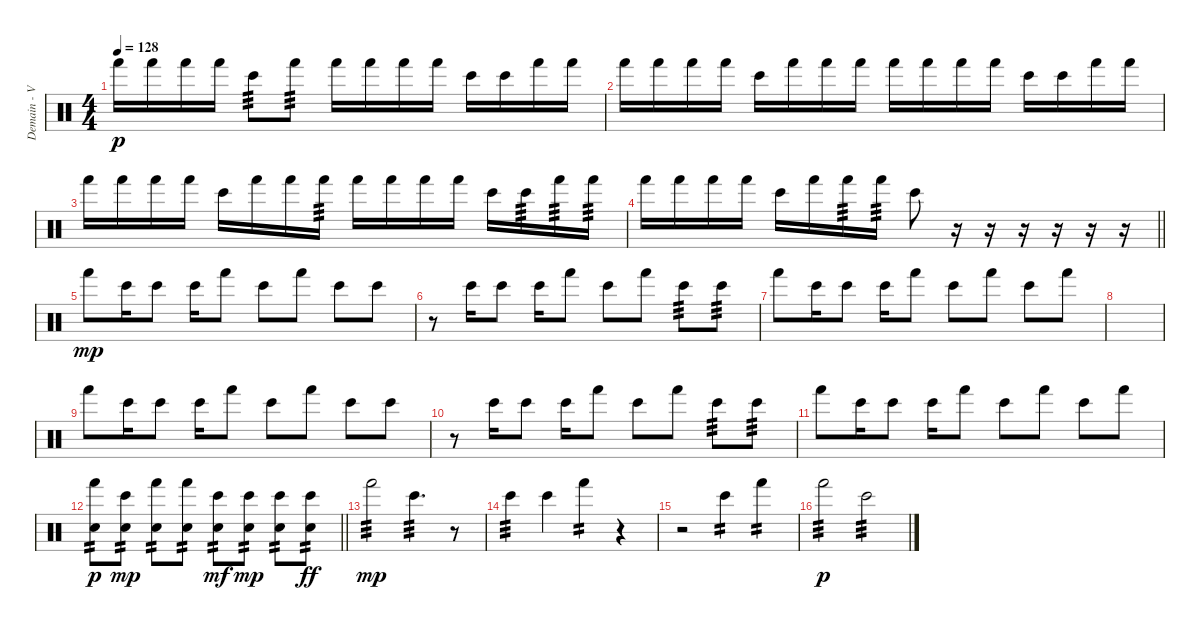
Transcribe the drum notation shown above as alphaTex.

\track ("Demain - Various Perc." "Demain - V") {instrument percussion}
\staff {score}
\articulation defaults
\ts (4 4)
\tempo 128
\clef neutral
\ks c "Hand (hit)".16{dy p} "Hand (hit)".16 "Hand (hit)".16 "Hand (hit)".16 "Bongo High (hit)".8{tp 3} "Hand (hit)".8{tp 3} "Hand (hit)".16 "Hand (hit)".16 "Hand (hit)".16 "Hand (hit)".16 "Bongo High (hit)".16 "Bongo High (hit)".16 "Hand (hit)".16 "Hand (hit)".16
|
"Hand (hit)".16 "Hand (hit)".16 "Hand (hit)".16 "Hand (hit)".16 "Bongo High (hit)".16 "Hand (hit)".16 "Hand (hit)".16 "Hand (hit)".16 "Hand (hit)".16 "Hand (hit)".16 "Hand (hit)".16 "Hand (hit)".16 "Bongo High (hit)".16 "Bongo High (hit)".16 "Hand (hit)".16 "Hand (hit)".16 |
"Hand (hit)".16 "Hand (hit)".16 "Hand (hit)".16 "Hand (hit)".16 "Bongo High (hit)".16 "Hand (hit)".16 "Hand (hit)".16 "Hand (hit)".16{tp 3} "Hand (hit)".16 "Hand (hit)".16 "Hand (hit)".16 "Hand (hit)".16 "Bongo High (hit)".16 "Bongo High (hit)".16{tp 3} "Hand (hit)".16{tp 3} "Hand (hit)".16{tp 3} |
\barLineRight lightlight "Hand (hit)".16 "Hand (hit)".16 "Hand (hit)".16 "Hand (hit)".16 "Bongo High (hit)".16 "Hand (hit)".16 "Hand (hit)".16{tp 3} "Hand (hit)".16{tp 3} "Bongo High (hit)".8
r.16 r.16 r.16 r.16 r.16 r.16 |
"Hand (hit)".8{dy mp} "Bongo High (hit)".16 "Bongo High (hit)".8 "Bongo High (hit)".16 "Hand (hit)".8 "Bongo High (hit)".8 "Hand (hit)".8 "Bongo High (hit)".8 "Bongo High (hit)".8 |
r.8 "Bongo High (hit)".16 "Bongo High (hit)".8 "Bongo High (hit)".16 "Hand (hit)".8 "Bongo High (hit)".8 "Hand (hit)".8 "Bongo High (hit)".8{tp 3} "Bongo High (hit)".8{tp 3} |
"Hand (hit)".8 "Bongo High (hit)".16 "Bongo High (hit)".8 "Bongo High (hit)".16 "Hand (hit)".8 "Bongo High (hit)".8 "Hand (hit)".8 "Bongo High (hit)".8 "Hand (hit)".8 |
|
"Hand (hit)".8 "Bongo High (hit)".16 "Bongo High (hit)".8 "Bongo High (hit)".16 "Hand (hit)".8 "Bongo High (hit)".8 "Hand (hit)".8 "Bongo High (hit)".8 "Bongo High (hit)".8 |
r.8 "Bongo High (hit)".16 "Bongo High (hit)".8 "Bongo High (hit)".16 "Hand (hit)".8 "Bongo High (hit)".8 "Hand (hit)".8 "Bongo High (hit)".8{tp 3} "Bongo High (hit)".8{tp 3} |
"Hand (hit)".8 "Bongo High (hit)".16 "Bongo High (hit)".8 "Bongo High (hit)".16 "Hand (hit)".8 "Bongo High (hit)".8 "Hand (hit)".8 "Bongo High (hit)".8 "Hand (hit)".8 |
\barLineRight lightlight
("Hand (hit)" "Electric Snare (hit)").8{tp 2 dy p} ("Bongo High (hit)" "Electric Snare (hit)").8{tp 2 dy mp} ("Hand (hit)" "Electric Snare (hit)").8{tp 2} ("Hand (hit)" "Electric Snare (hit)").8{tp 2} ("Bongo High (hit)" "Electric Snare (hit)").8{tp 2 dy mf} ("Bongo High (hit)" "Electric Snare (hit)").8{tp 2 dy mp} ("Bongo High (hit)" "Electric Snare (hit)").8{tp 2} ("Bongo High (hit)" "Electric Snare (hit)").8{tp 2 dy ff} |
"Hand (hit)".2{tp 3 dy mp} "Bongo High (hit)".4{d tp 3} r.8 |
"Bongo High (hit)".4{tp 3} "Bongo High (hit)".4 "Hand (hit)".4{tp 2} r.4 |
r.2 "Bongo High (hit)".4{tp 2} "Hand (hit)".4{tp 2} |
"Hand (hit)".2{tp 3 dy p} "Bongo High (hit)".2{tp 3}
